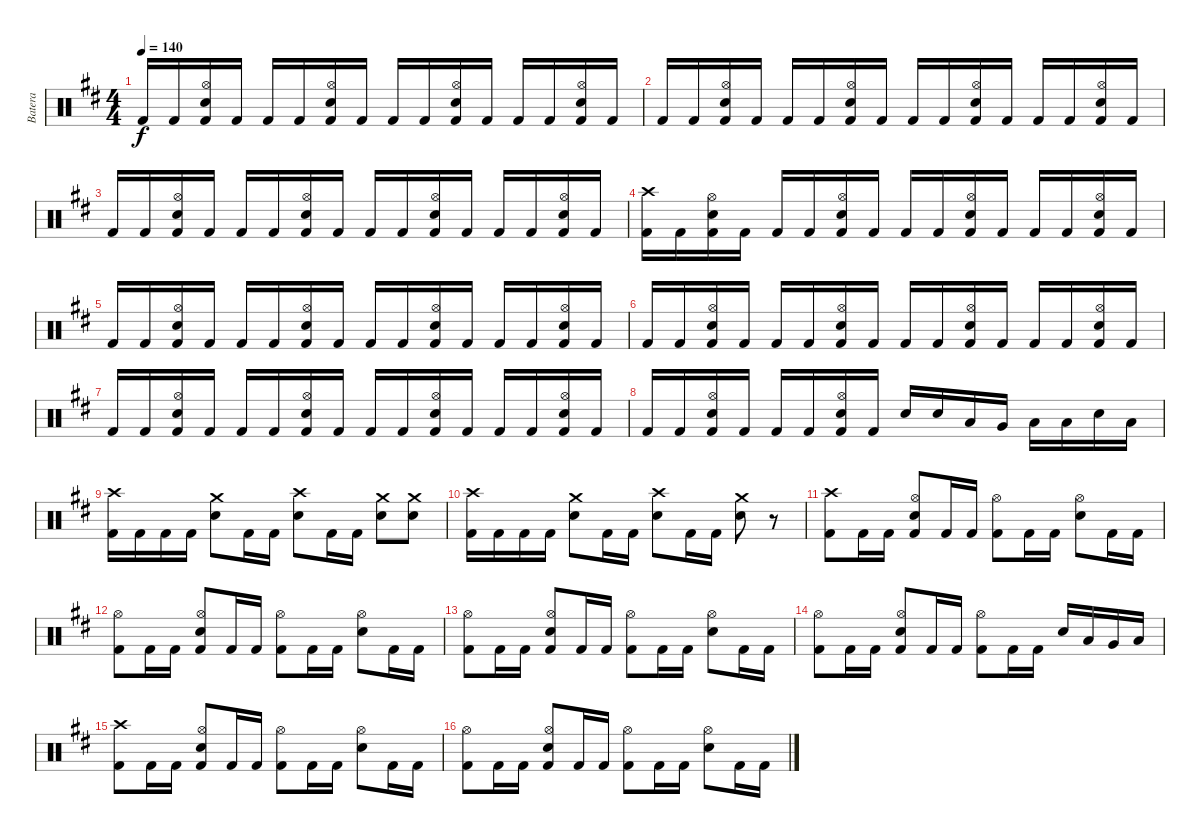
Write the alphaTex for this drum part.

\track ("Batera" "Batera") {instrument percussion}
\staff {score}
\articulation defaults
\ts (4 4)
\tempo 140
\clef neutral
\ks bminor "Kick (hit) 2".16{dy f} "Kick (hit) 2".16
("Hi-Hat (open)" "Electric Snare (hit)" "Kick (hit) 2").16 "Kick (hit) 2".16 "Kick (hit) 2".16 "Kick (hit) 2".16 ("Hi-Hat (open)" "Electric Snare (hit)" "Kick (hit) 2").16 "Kick (hit) 2".16 "Kick (hit) 2".16 "Kick (hit) 2".16 ("Hi-Hat (open)" "Electric Snare (hit)" "Kick (hit) 2").16 "Kick (hit) 2".16 "Kick (hit) 2".16 "Kick (hit) 2".16 ("Hi-Hat (open)" "Electric Snare (hit)" "Kick (hit) 2").16 "Kick (hit) 2".16 |
"Kick (hit) 2".16 "Kick (hit) 2".16 ("Hi-Hat (open)" "Electric Snare (hit)" "Kick (hit) 2").16 "Kick (hit) 2".16 "Kick (hit) 2".16 "Kick (hit) 2".16 ("Hi-Hat (open)" "Electric Snare (hit)" "Kick (hit) 2").16 "Kick (hit) 2".16 "Kick (hit) 2".16 "Kick (hit) 2".16 ("Hi-Hat (open)" "Electric Snare (hit)" "Kick (hit) 2").16 "Kick (hit) 2".16 "Kick (hit) 2".16 "Kick (hit) 2".16 ("Hi-Hat (open)" "Electric Snare (hit)" "Kick (hit) 2").16 "Kick (hit) 2".16 |
"Kick (hit) 2".16 "Kick (hit) 2".16 ("Hi-Hat (open)" "Electric Snare (hit)" "Kick (hit) 2").16 "Kick (hit) 2".16 "Kick (hit) 2".16 "Kick (hit) 2".16 ("Hi-Hat (open)" "Electric Snare (hit)" "Kick (hit) 2").16 "Kick (hit) 2".16 "Kick (hit) 2".16 "Kick (hit) 2".16 ("Hi-Hat (open)" "Electric Snare (hit)" "Kick (hit) 2").16 "Kick (hit) 2".16 "Kick (hit) 2".16 "Kick (hit) 2".16 ("Hi-Hat (open)" "Electric Snare (hit)" "Kick (hit) 2").16 "Kick (hit) 2".16 |
("Crash high (hit)" "Kick (hit) 2").16 "Kick (hit) 2".16 ("Hi-Hat (open)" "Electric Snare (hit)" "Kick (hit) 2").16 "Kick (hit) 2".16 "Kick (hit) 2".16 "Kick (hit) 2".16 ("Hi-Hat (open)" "Electric Snare (hit)" "Kick (hit) 2").16 "Kick (hit) 2".16 "Kick (hit) 2".16 "Kick (hit) 2".16 ("Hi-Hat (open)" "Electric Snare (hit)" "Kick (hit) 2").16 "Kick (hit) 2".16 "Kick (hit) 2".16 "Kick (hit) 2".16 ("Hi-Hat (open)" "Electric Snare (hit)" "Kick (hit) 2").16 "Kick (hit) 2".16 |
"Kick (hit) 2".16 "Kick (hit) 2".16 ("Hi-Hat (open)" "Electric Snare (hit)" "Kick (hit) 2").16 "Kick (hit) 2".16 "Kick (hit) 2".16 "Kick (hit) 2".16 ("Hi-Hat (open)" "Electric Snare (hit)" "Kick (hit) 2").16 "Kick (hit) 2".16 "Kick (hit) 2".16 "Kick (hit) 2".16 ("Hi-Hat (open)" "Electric Snare (hit)" "Kick (hit) 2").16 "Kick (hit) 2".16 "Kick (hit) 2".16 "Kick (hit) 2".16 ("Hi-Hat (open)" "Electric Snare (hit)" "Kick (hit) 2").16 "Kick (hit) 2".16 |
"Kick (hit) 2".16 "Kick (hit) 2".16 ("Hi-Hat (open)" "Electric Snare (hit)" "Kick (hit) 2").16 "Kick (hit) 2".16 "Kick (hit) 2".16 "Kick (hit) 2".16 ("Hi-Hat (open)" "Electric Snare (hit)" "Kick (hit) 2").16 "Kick (hit) 2".16 "Kick (hit) 2".16 "Kick (hit) 2".16 ("Hi-Hat (open)" "Electric Snare (hit)" "Kick (hit) 2").16 "Kick (hit) 2".16 "Kick (hit) 2".16 "Kick (hit) 2".16 ("Hi-Hat (open)" "Electric Snare (hit)" "Kick (hit) 2").16 "Kick (hit) 2".16 |
"Kick (hit) 2".16 "Kick (hit) 2".16 ("Hi-Hat (open)" "Electric Snare (hit)" "Kick (hit) 2").16 "Kick (hit) 2".16 "Kick (hit) 2".16 "Kick (hit) 2".16 ("Hi-Hat (open)" "Electric Snare (hit)" "Kick (hit) 2").16 "Kick (hit) 2".16 "Kick (hit) 2".16 "Kick (hit) 2".16 ("Hi-Hat (open)" "Electric Snare (hit)" "Kick (hit) 2").16 "Kick (hit) 2".16 "Kick (hit) 2".16 "Kick (hit) 2".16 ("Hi-Hat (open)" "Electric Snare (hit)" "Kick (hit) 2").16 "Kick (hit) 2".16 |
"Kick (hit) 2".16 "Kick (hit) 2".16 ("Hi-Hat (open)" "Electric Snare (hit)" "Kick (hit) 2").16 "Kick (hit) 2".16 "Kick (hit) 2".16 "Kick (hit) 2".16 ("Hi-Hat (open)" "Electric Snare (hit)" "Kick (hit) 2").16 "Kick (hit) 2".16 "Electric Snare (hit)".16 "Electric Snare (hit)".16 "Low Floor Tom (hit)".16 "Very Low Tom (hit)".16 "Low Tom (hit)".16 "Low Floor Tom (hit)".16 "Electric Snare (hit)".16 "Low Floor Tom (hit)".16 |
("Crash high (hit)" "Kick (hit) 2").16 "Kick (hit) 2".16 "Kick (hit) 2".16 "Kick (hit) 2".16 ("Crash medium (hit)" "Electric Snare (hit)").8 "Kick (hit) 2".16 "Kick (hit) 2".16 ("Crash high (hit)" "Electric Snare (hit)").8 "Kick (hit) 2".16 "Kick (hit) 2".16 ("Crash medium (hit)" "Electric Snare (hit)").8 ("Crash medium (hit)" "Electric Snare (hit)").8 |
("Crash high (hit)" "Kick (hit) 2").16 "Kick (hit) 2".16 "Kick (hit) 2".16 "Kick (hit) 2".16 ("Crash medium (hit)" "Electric Snare (hit)").8 "Kick (hit) 2".16 "Kick (hit) 2".16 ("Crash high (hit)" "Electric Snare (hit)").8 "Kick (hit) 2".16 "Kick (hit) 2".16 ("Crash medium (hit)" "Electric Snare (hit)").8 r.8 |
("Crash high (hit)" "Kick (hit) 2").8 "Kick (hit) 2".16 "Kick (hit) 2".16 ("Hi-Hat (open)" "Electric Snare (hit)" "Kick (hit) 2").8 "Kick (hit) 2".16 "Kick (hit) 2".16 ("Hi-Hat (open)" "Kick (hit) 2").8 "Kick (hit) 2".16 "Kick (hit) 2".16 ("Hi-Hat (open)" "Electric Snare (hit)").8 "Kick (hit) 2".16 "Kick (hit) 2".16 |
("Hi-Hat (open)" "Kick (hit) 2").8 "Kick (hit) 2".16 "Kick (hit) 2".16 ("Hi-Hat (open)" "Electric Snare (hit)" "Kick (hit) 2").8 "Kick (hit) 2".16 "Kick (hit) 2".16 ("Hi-Hat (open)" "Kick (hit) 2").8 "Kick (hit) 2".16 "Kick (hit) 2".16 ("Hi-Hat (open)" "Electric Snare (hit)").8 "Kick (hit) 2".16 "Kick (hit) 2".16 |
("Hi-Hat (open)" "Kick (hit) 2").8 "Kick (hit) 2".16 "Kick (hit) 2".16 ("Hi-Hat (open)" "Electric Snare (hit)" "Kick (hit) 2").8 "Kick (hit) 2".16 "Kick (hit) 2".16 ("Hi-Hat (open)" "Kick (hit) 2").8 "Kick (hit) 2".16 "Kick (hit) 2".16 ("Hi-Hat (open)" "Electric Snare (hit)").8 "Kick (hit) 2".16 "Kick (hit) 2".16 |
("Hi-Hat (open)" "Kick (hit) 2").8 "Kick (hit) 2".16 "Kick (hit) 2".16 ("Hi-Hat (open)" "Electric Snare (hit)" "Kick (hit) 2").8 "Kick (hit) 2".16 "Kick (hit) 2".16 ("Hi-Hat (open)" "Kick (hit) 2").8 "Kick (hit) 2".16 "Kick (hit) 2".16 "Electric Snare (hit)".16 "Low Floor Tom (hit)".16 "Very Low Tom (hit)".16 "Low Floor Tom (hit)".16 |
("Crash high (hit)" "Kick (hit) 2").8 "Kick (hit) 2".16 "Kick (hit) 2".16 ("Hi-Hat (open)" "Electric Snare (hit)" "Kick (hit) 2").8 "Kick (hit) 2".16 "Kick (hit) 2".16 ("Hi-Hat (open)" "Kick (hit) 2").8 "Kick (hit) 2".16 "Kick (hit) 2".16 ("Hi-Hat (open)" "Electric Snare (hit)").8 "Kick (hit) 2".16 "Kick (hit) 2".16 |
("Hi-Hat (open)" "Kick (hit) 2").8 "Kick (hit) 2".16 "Kick (hit) 2".16 ("Hi-Hat (open)" "Electric Snare (hit)" "Kick (hit) 2").8 "Kick (hit) 2".16 "Kick (hit) 2".16 ("Hi-Hat (open)" "Kick (hit) 2").8 "Kick (hit) 2".16 "Kick (hit) 2".16 ("Hi-Hat (open)" "Electric Snare (hit)").8 "Kick (hit) 2".16 "Kick (hit) 2".16
